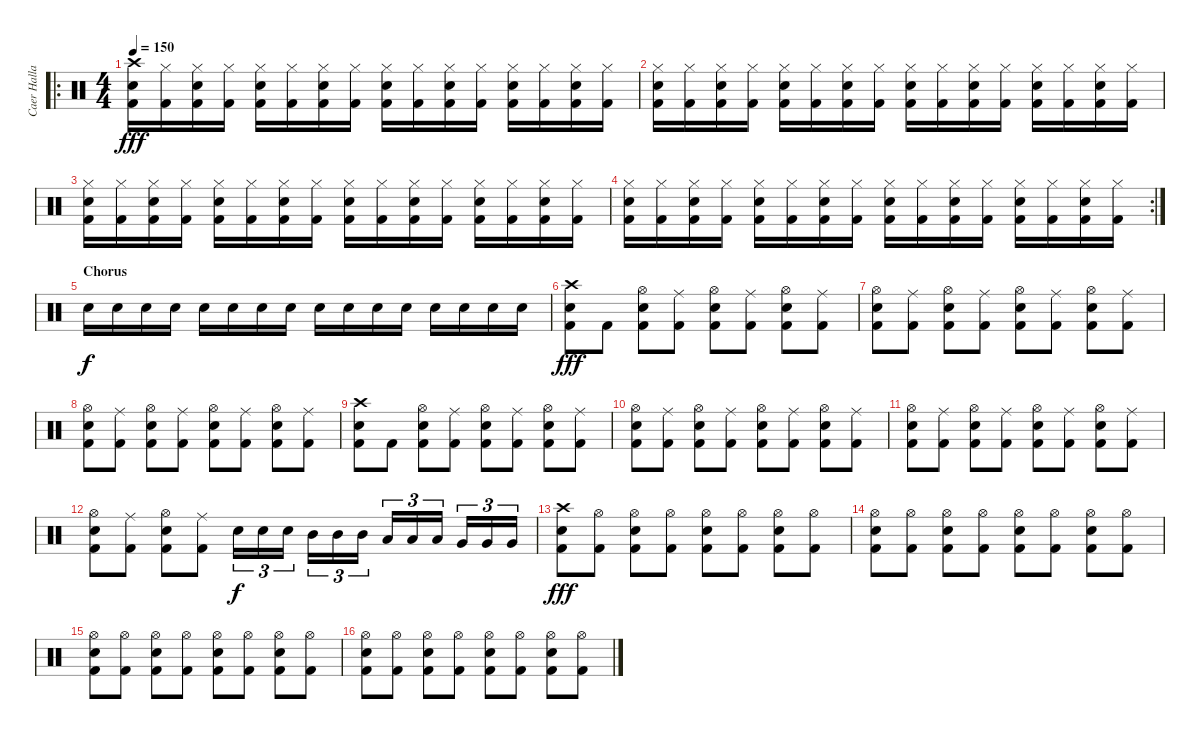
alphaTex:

\track ("Caer Hallam Generis" "Caer Halla") {instrument percussion}
\staff {score}
\articulation defaults
\ro
\ts (4 4)
\tempo 150
\clef neutral
\ks c
("Crash high (hit)" "Snare (hit) 2" "Kick (hit) 2").16{dy fff} ("Hi-Hat (closed)" "Kick (hit) 2").16 ("Hi-Hat (closed)" "Snare (hit) 2" "Kick (hit) 2").16 ("Hi-Hat (closed)" "Kick (hit) 2").16 ("Hi-Hat (closed)" "Snare (hit) 2" "Kick (hit) 2").16 ("Hi-Hat (closed)" "Kick (hit) 2").16 ("Hi-Hat (closed)" "Snare (hit) 2" "Kick (hit) 2").16 ("Hi-Hat (closed)" "Kick (hit) 2").16 ("Hi-Hat (closed)" "Snare (hit) 2" "Kick (hit) 2").16 ("Hi-Hat (closed)" "Kick (hit) 2").16 ("Hi-Hat (closed)" "Snare (hit) 2" "Kick (hit) 2").16 ("Hi-Hat (closed)" "Kick (hit) 2").16 ("Hi-Hat (closed)" "Snare (hit) 2" "Kick (hit) 2").16 ("Hi-Hat (closed)" "Kick (hit) 2").16 ("Hi-Hat (closed)" "Snare (hit) 2" "Kick (hit) 2").16 ("Hi-Hat (closed)" "Kick (hit) 2").16 |
("Hi-Hat (closed)" "Snare (hit) 2" "Kick (hit) 2").16 ("Hi-Hat (closed)" "Kick (hit) 2").16 ("Hi-Hat (closed)" "Snare (hit) 2" "Kick (hit) 2").16 ("Hi-Hat (closed)" "Kick (hit) 2").16 ("Hi-Hat (closed)" "Snare (hit) 2" "Kick (hit) 2").16 ("Hi-Hat (closed)" "Kick (hit) 2").16 ("Hi-Hat (closed)" "Snare (hit) 2" "Kick (hit) 2").16 ("Hi-Hat (closed)" "Kick (hit) 2").16 ("Hi-Hat (closed)" "Snare (hit) 2" "Kick (hit) 2").16 ("Hi-Hat (closed)" "Kick (hit) 2").16 ("Hi-Hat (closed)" "Snare (hit) 2" "Kick (hit) 2").16 ("Hi-Hat (closed)" "Kick (hit) 2").16 ("Hi-Hat (closed)" "Snare (hit) 2" "Kick (hit) 2").16 ("Hi-Hat (closed)" "Kick (hit) 2").16 ("Hi-Hat (closed)" "Snare (hit) 2" "Kick (hit) 2").16 ("Hi-Hat (closed)" "Kick (hit) 2").16 |
("Hi-Hat (closed)" "Snare (hit) 2" "Kick (hit) 2").16 ("Hi-Hat (closed)" "Kick (hit) 2").16 ("Hi-Hat (closed)" "Snare (hit) 2" "Kick (hit) 2").16 ("Hi-Hat (closed)" "Kick (hit) 2").16 ("Hi-Hat (closed)" "Snare (hit) 2" "Kick (hit) 2").16 ("Hi-Hat (closed)" "Kick (hit) 2").16 ("Hi-Hat (closed)" "Snare (hit) 2" "Kick (hit) 2").16 ("Hi-Hat (closed)" "Kick (hit) 2").16 ("Hi-Hat (closed)" "Snare (hit) 2" "Kick (hit) 2").16 ("Hi-Hat (closed)" "Kick (hit) 2").16 ("Hi-Hat (closed)" "Snare (hit) 2" "Kick (hit) 2").16 ("Hi-Hat (closed)" "Kick (hit) 2").16 ("Hi-Hat (closed)" "Snare (hit) 2" "Kick (hit) 2").16 ("Hi-Hat (closed)" "Kick (hit) 2").16 ("Hi-Hat (closed)" "Snare (hit) 2" "Kick (hit) 2").16 ("Hi-Hat (closed)" "Kick (hit) 2").16 |
\rc 2
("Hi-Hat (closed)" "Snare (hit) 2" "Kick (hit) 2").16 ("Hi-Hat (closed)" "Kick (hit) 2").16 ("Hi-Hat (closed)" "Snare (hit) 2" "Kick (hit) 2").16 ("Hi-Hat (closed)" "Kick (hit) 2").16 ("Hi-Hat (closed)" "Snare (hit) 2" "Kick (hit) 2").16 ("Hi-Hat (closed)" "Kick (hit) 2").16 ("Hi-Hat (closed)" "Snare (hit) 2" "Kick (hit) 2").16 ("Hi-Hat (closed)" "Kick (hit) 2").16 ("Hi-Hat (closed)" "Snare (hit) 2" "Kick (hit) 2").16 ("Hi-Hat (closed)" "Kick (hit) 2").16 ("Hi-Hat (closed)" "Snare (hit) 2" "Kick (hit) 2").16 ("Hi-Hat (closed)" "Kick (hit) 2").16 ("Hi-Hat (closed)" "Snare (hit) 2" "Kick (hit) 2").16 ("Hi-Hat (closed)" "Kick (hit) 2").16 ("Hi-Hat (closed)" "Snare (hit) 2" "Kick (hit) 2").16 ("Hi-Hat (closed)" "Kick (hit) 2").16 |
\section ("" "Chorus")
"Snare (hit) 2".16{dy f} "Snare (hit) 2".16 "Snare (hit) 2".16 "Snare (hit) 2".16 "Snare (hit) 2".16 "Snare (hit) 2".16 "Snare (hit) 2".16 "Snare (hit) 2".16 "Snare (hit) 2".16 "Snare (hit) 2".16 "Snare (hit) 2".16 "Snare (hit) 2".16 "Snare (hit) 2".16 "Snare (hit) 2".16 "Snare (hit) 2".16 "Snare (hit) 2".16 |
("Crash high (hit)" "Snare (hit) 2" "Kick (hit) 2").8{dy fff} "Kick (hit) 2".8 ("Hi-Hat (open)" "Snare (hit) 2" "Kick (hit) 2").8 ("Ride (middle)" "Kick (hit) 2").8 ("Hi-Hat (open)" "Snare (hit) 2" "Kick (hit) 2").8 ("Ride (middle)" "Kick (hit) 2").8 ("Hi-Hat (open)" "Snare (hit) 2" "Kick (hit) 2").8 ("Ride (middle)" "Kick (hit) 2").8 |
("Hi-Hat (open)" "Snare (hit) 2" "Kick (hit) 2").8 ("Ride (middle)" "Kick (hit) 2").8 ("Hi-Hat (open)" "Snare (hit) 2" "Kick (hit) 2").8 ("Ride (middle)" "Kick (hit) 2").8 ("Hi-Hat (open)" "Snare (hit) 2" "Kick (hit) 2").8 ("Ride (middle)" "Kick (hit) 2").8 ("Hi-Hat (open)" "Snare (hit) 2" "Kick (hit) 2").8 ("Ride (middle)" "Kick (hit) 2").8 |
("Hi-Hat (open)" "Snare (hit) 2" "Kick (hit) 2").8 ("Ride (middle)" "Kick (hit) 2").8 ("Hi-Hat (open)" "Snare (hit) 2" "Kick (hit) 2").8 ("Ride (middle)" "Kick (hit) 2").8 ("Hi-Hat (open)" "Snare (hit) 2" "Kick (hit) 2").8 ("Ride (middle)" "Kick (hit) 2").8 ("Hi-Hat (open)" "Snare (hit) 2" "Kick (hit) 2").8 ("Ride (middle)" "Kick (hit) 2").8 |
("Crash high (hit)" "Snare (hit) 2" "Kick (hit) 2").8 "Kick (hit) 2".8 ("Hi-Hat (open)" "Snare (hit) 2" "Kick (hit) 2").8 ("Ride (middle)" "Kick (hit) 2").8 ("Hi-Hat (open)" "Snare (hit) 2" "Kick (hit) 2").8 ("Ride (middle)" "Kick (hit) 2").8 ("Hi-Hat (open)" "Snare (hit) 2" "Kick (hit) 2").8 ("Ride (middle)" "Kick (hit) 2").8 |
("Hi-Hat (open)" "Snare (hit) 2" "Kick (hit) 2").8 ("Ride (middle)" "Kick (hit) 2").8 ("Hi-Hat (open)" "Snare (hit) 2" "Kick (hit) 2").8 ("Ride (middle)" "Kick (hit) 2").8 ("Hi-Hat (open)" "Snare (hit) 2" "Kick (hit) 2").8 ("Ride (middle)" "Kick (hit) 2").8 ("Hi-Hat (open)" "Snare (hit) 2" "Kick (hit) 2").8 ("Ride (middle)" "Kick (hit) 2").8 |
("Hi-Hat (open)" "Snare (hit) 2" "Kick (hit) 2").8 ("Ride (middle)" "Kick (hit) 2").8 ("Hi-Hat (open)" "Snare (hit) 2" "Kick (hit) 2").8 ("Ride (middle)" "Kick (hit) 2").8 ("Hi-Hat (open)" "Snare (hit) 2" "Kick (hit) 2").8 ("Ride (middle)" "Kick (hit) 2").8 ("Hi-Hat (open)" "Snare (hit) 2" "Kick (hit) 2").8 ("Ride (middle)" "Kick (hit) 2").8 |
("Hi-Hat (open)" "Snare (hit) 2" "Kick (hit) 2").8 ("Ride (middle)" "Kick (hit) 2").8 ("Hi-Hat (open)" "Snare (hit) 2" "Kick (hit) 2").8 ("Ride (middle)" "Kick (hit) 2").8 "Snare (hit) 2".16{tu (3 2) dy f} "Snare (hit) 2".16{tu (3 2)} "Snare (hit) 2".16{tu (3 2)} "Mid Tom (hit)".16{tu (3 2)} "Mid Tom (hit)".16{tu (3 2)} "Mid Tom (hit)".16{tu (3 2)} "Low Tom (hit)".16{tu (3 2)} "Low Tom (hit)".16{tu (3 2)} "Low Tom (hit)".16{tu (3 2)} "Very Low Tom (hit)".16{tu (3 2)} "Very Low Tom (hit)".16{tu (3 2)} "Very Low Tom (hit)".16{tu (3 2)} |
("Crash high (hit)" "Snare (hit) 2" "Kick (hit) 2").8{dy fff} ("Hi-Hat (open)" "Kick (hit) 2").8 ("Hi-Hat (open)" "Snare (hit) 2" "Kick (hit) 2").8 ("Hi-Hat (open)" "Kick (hit) 2").8 ("Hi-Hat (open)" "Snare (hit) 2" "Kick (hit) 2").8 ("Hi-Hat (open)" "Kick (hit) 2").8 ("Hi-Hat (open)" "Snare (hit) 2" "Kick (hit) 2").8 ("Hi-Hat (open)" "Kick (hit) 2").8 |
("Hi-Hat (open)" "Snare (hit) 2" "Kick (hit) 2").8 ("Hi-Hat (open)" "Kick (hit) 2").8 ("Hi-Hat (open)" "Snare (hit) 2" "Kick (hit) 2").8 ("Hi-Hat (open)" "Kick (hit) 2").8 ("Hi-Hat (open)" "Snare (hit) 2" "Kick (hit) 2").8 ("Hi-Hat (open)" "Kick (hit) 2").8 ("Hi-Hat (open)" "Snare (hit) 2" "Kick (hit) 2").8 ("Hi-Hat (open)" "Kick (hit) 2").8 |
("Hi-Hat (open)" "Snare (hit) 2" "Kick (hit) 2").8 ("Hi-Hat (open)" "Kick (hit) 2").8 ("Hi-Hat (open)" "Snare (hit) 2" "Kick (hit) 2").8 ("Hi-Hat (open)" "Kick (hit) 2").8 ("Hi-Hat (open)" "Snare (hit) 2" "Kick (hit) 2").8 ("Hi-Hat (open)" "Kick (hit) 2").8 ("Hi-Hat (open)" "Snare (hit) 2" "Kick (hit) 2").8 ("Hi-Hat (open)" "Kick (hit) 2").8 |
("Hi-Hat (open)" "Snare (hit) 2" "Kick (hit) 2").8 ("Hi-Hat (open)" "Kick (hit) 2").8 ("Hi-Hat (open)" "Snare (hit) 2" "Kick (hit) 2").8 ("Hi-Hat (open)" "Kick (hit) 2").8 ("Hi-Hat (open)" "Snare (hit) 2" "Kick (hit) 2").8 ("Hi-Hat (open)" "Kick (hit) 2").8 ("Hi-Hat (open)" "Snare (hit) 2" "Kick (hit) 2").8 ("Hi-Hat (open)" "Kick (hit) 2").8
